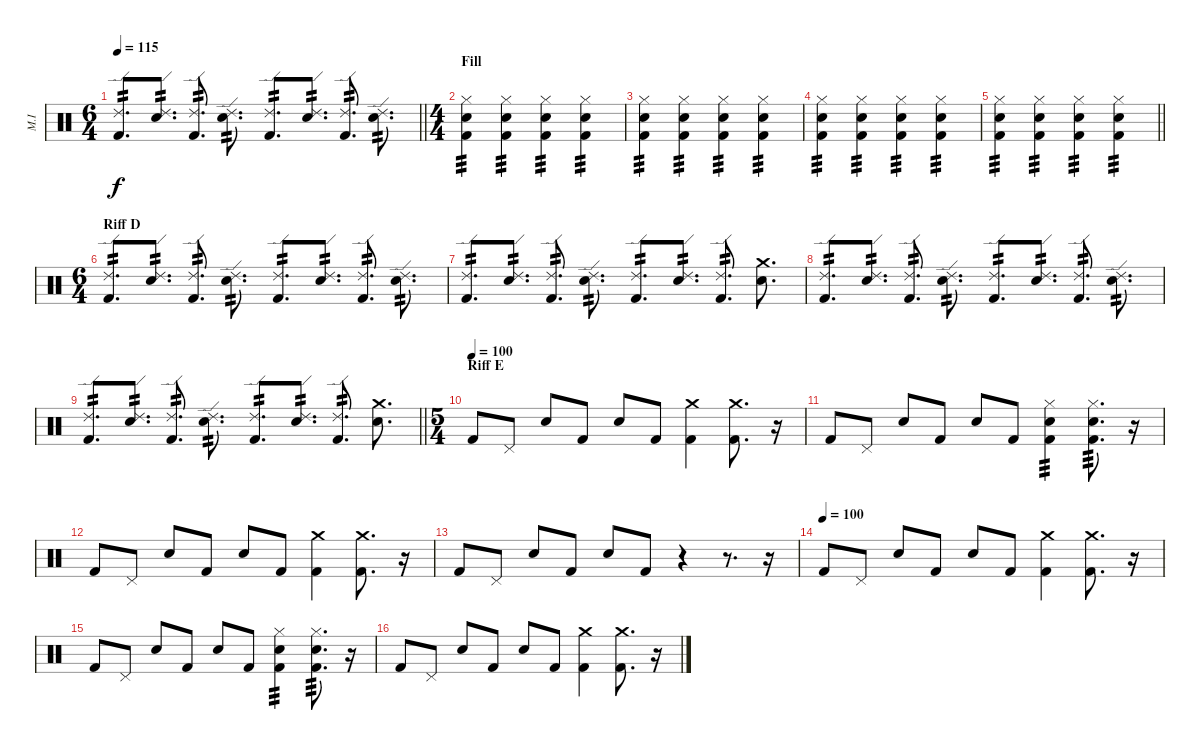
\track ("M.I" "M.I") {instrument percussion}
\staff {score}
\articulation defaults
\ts (6 4)
\tempo 115
\clef neutral
\barLineRight lightlight
\ks c
("Ride (edge) 2" "Kick (hit) 2").8{d tp 2 dy f} ("Ride (edge) 2" "Snare (hit) 2").8{d tp 2} ("Ride (edge) 2" "Kick (hit) 2").8{d tp 2} ("Ride (edge) 2" "Snare (hit) 2").8{d tp 2} ("Ride (edge) 2" "Kick (hit) 2").8{d tp 2} ("Ride (edge) 2" "Snare (hit) 2").8{d tp 2} ("Ride (edge) 2" "Kick (hit) 2").8{d tp 2} ("Ride (edge) 2" "Snare (hit) 2").8{d tp 2} |
\ts (4 4)
\section ("" "Fill")
("Hi-Hat (closed)" "Snare (hit) 2" "Kick (hit) 2").4{tp 3} ("Hi-Hat (closed)" "Snare (hit) 2" "Kick (hit) 2").4{tp 3} ("Hi-Hat (closed)" "Snare (hit) 2" "Kick (hit) 2").4{tp 3} ("Hi-Hat (closed)" "Snare (hit) 2" "Kick (hit) 2").4{tp 3} |
("Hi-Hat (closed)" "Snare (hit) 2" "Kick (hit) 2").4{tp 3} ("Hi-Hat (closed)" "Snare (hit) 2" "Kick (hit) 2").4{tp 3} ("Hi-Hat (closed)" "Snare (hit) 2" "Kick (hit) 2").4{tp 3} ("Hi-Hat (closed)" "Snare (hit) 2" "Kick (hit) 2").4{tp 3} |
("Hi-Hat (closed)" "Snare (hit) 2" "Kick (hit) 2").4{tp 3} ("Hi-Hat (closed)" "Snare (hit) 2" "Kick (hit) 2").4{tp 3} ("Hi-Hat (closed)" "Snare (hit) 2" "Kick (hit) 2").4{tp 3} ("Hi-Hat (closed)" "Snare (hit) 2" "Kick (hit) 2").4{tp 3} |
\barLineRight lightlight
("Hi-Hat (closed)" "Snare (hit) 2" "Kick (hit) 2").4{tp 3} ("Hi-Hat (closed)" "Snare (hit) 2" "Kick (hit) 2").4{tp 3} ("Hi-Hat (closed)" "Snare (hit) 2" "Kick (hit) 2").4{tp 3} ("Hi-Hat (closed)" "Snare (hit) 2" "Kick (hit) 2").4{tp 3} |
\ts (6 4)
\section ("" "Riff D")
("Ride (edge) 2" "Kick (hit) 2").8{d tp 2} ("Ride (edge) 2" "Snare (hit) 2").8{d tp 2} ("Ride (edge) 2" "Kick (hit) 2").8{d tp 2} ("Ride (edge) 2" "Snare (hit) 2").8{d tp 2} ("Ride (edge) 2" "Kick (hit) 2").8{d tp 2} ("Ride (edge) 2" "Snare (hit) 2").8{d tp 2} ("Ride (edge) 2" "Kick (hit) 2").8{d tp 2} ("Ride (edge) 2" "Snare (hit) 2").8{d tp 2} |
("Ride (edge) 2" "Kick (hit) 2").8{d tp 2} ("Ride (edge) 2" "Snare (hit) 2").8{d tp 2} ("Ride (edge) 2" "Kick (hit) 2").8{d tp 2} ("Ride (edge) 2" "Snare (hit) 2").8{d tp 2} ("Ride (edge) 2" "Kick (hit) 2").8{d tp 2} ("Ride (edge) 2" "Snare (hit) 2").8{d tp 2} ("Ride (edge) 2" "Kick (hit) 2").8{d tp 2} ("Crash medium (hit)" "Snare (hit) 2").8{d} |
("Ride (edge) 2" "Kick (hit) 2").8{d tp 2} ("Ride (edge) 2" "Snare (hit) 2").8{d tp 2} ("Ride (edge) 2" "Kick (hit) 2").8{d tp 2} ("Ride (edge) 2" "Snare (hit) 2").8{d tp 2} ("Ride (edge) 2" "Kick (hit) 2").8{d tp 2} ("Ride (edge) 2" "Snare (hit) 2").8{d tp 2} ("Ride (edge) 2" "Kick (hit) 2").8{d tp 2} ("Ride (edge) 2" "Snare (hit) 2").8{d tp 2} |
\barLineRight lightlight
("Ride (edge) 2" "Kick (hit) 2").8{d tp 2} ("Ride (edge) 2" "Snare (hit) 2").8{d tp 2} ("Ride (edge) 2" "Kick (hit) 2").8{d tp 2} ("Ride (edge) 2" "Snare (hit) 2").8{d tp 2} ("Ride (edge) 2" "Kick (hit) 2").8{d tp 2} ("Ride (edge) 2" "Snare (hit) 2").8{d tp 2} ("Ride (edge) 2" "Kick (hit) 2").8{d tp 2} ("Crash medium (hit)" "Snare (hit) 2").8{d} |
\ts (5 4)
\section ("" "Riff E")
\tempo (100)
"Kick (hit) 2".8 "Pedal Hi-Hat (hit)".8 "Snare (hit) 2".8 "Kick (hit) 2".8 "Snare (hit) 2".8 "Kick (hit) 2".8 ("Crash medium (hit)" "Kick (hit) 2").4 ("Crash medium (hit)" "Kick (hit) 2").8{d} r.16 |
"Kick (hit) 2".8 "Pedal Hi-Hat (hit)".8 "Snare (hit) 2".8 "Kick (hit) 2".8 "Snare (hit) 2".8 "Kick (hit) 2".8 ("Hi-Hat (closed)" "Snare (hit) 2" "Kick (hit) 2").4{tp 3} ("Hi-Hat (closed)" "Snare (hit) 2" "Kick (hit) 2").8{d tp 3} r.16 |
"Kick (hit) 2".8 "Pedal Hi-Hat (hit)".8 "Snare (hit) 2".8 "Kick (hit) 2".8 "Snare (hit) 2".8 "Kick (hit) 2".8 ("Crash medium (hit)" "Kick (hit) 2").4 ("Crash medium (hit)" "Kick (hit) 2").8{d} r.16 |
"Kick (hit) 2".8 "Pedal Hi-Hat (hit)".8 "Snare (hit) 2".8 "Kick (hit) 2".8 "Snare (hit) 2".8 "Kick (hit) 2".8 r.4 r.8{d} r.16 |
\tempo (100)
"Kick (hit) 2".8 "Pedal Hi-Hat (hit)".8 "Snare (hit) 2".8 "Kick (hit) 2".8 "Snare (hit) 2".8 "Kick (hit) 2".8 ("Crash medium (hit)" "Kick (hit) 2").4 ("Crash medium (hit)" "Kick (hit) 2").8{d} r.16 |
"Kick (hit) 2".8 "Pedal Hi-Hat (hit)".8 "Snare (hit) 2".8 "Kick (hit) 2".8 "Snare (hit) 2".8 "Kick (hit) 2".8 ("Hi-Hat (closed)" "Snare (hit) 2" "Kick (hit) 2").4{tp 3} ("Hi-Hat (closed)" "Snare (hit) 2" "Kick (hit) 2").8{d tp 3} r.16 |
"Kick (hit) 2".8 "Pedal Hi-Hat (hit)".8 "Snare (hit) 2".8 "Kick (hit) 2".8 "Snare (hit) 2".8 "Kick (hit) 2".8 ("Crash medium (hit)" "Kick (hit) 2").4 ("Crash medium (hit)" "Kick (hit) 2").8{d} r.16
